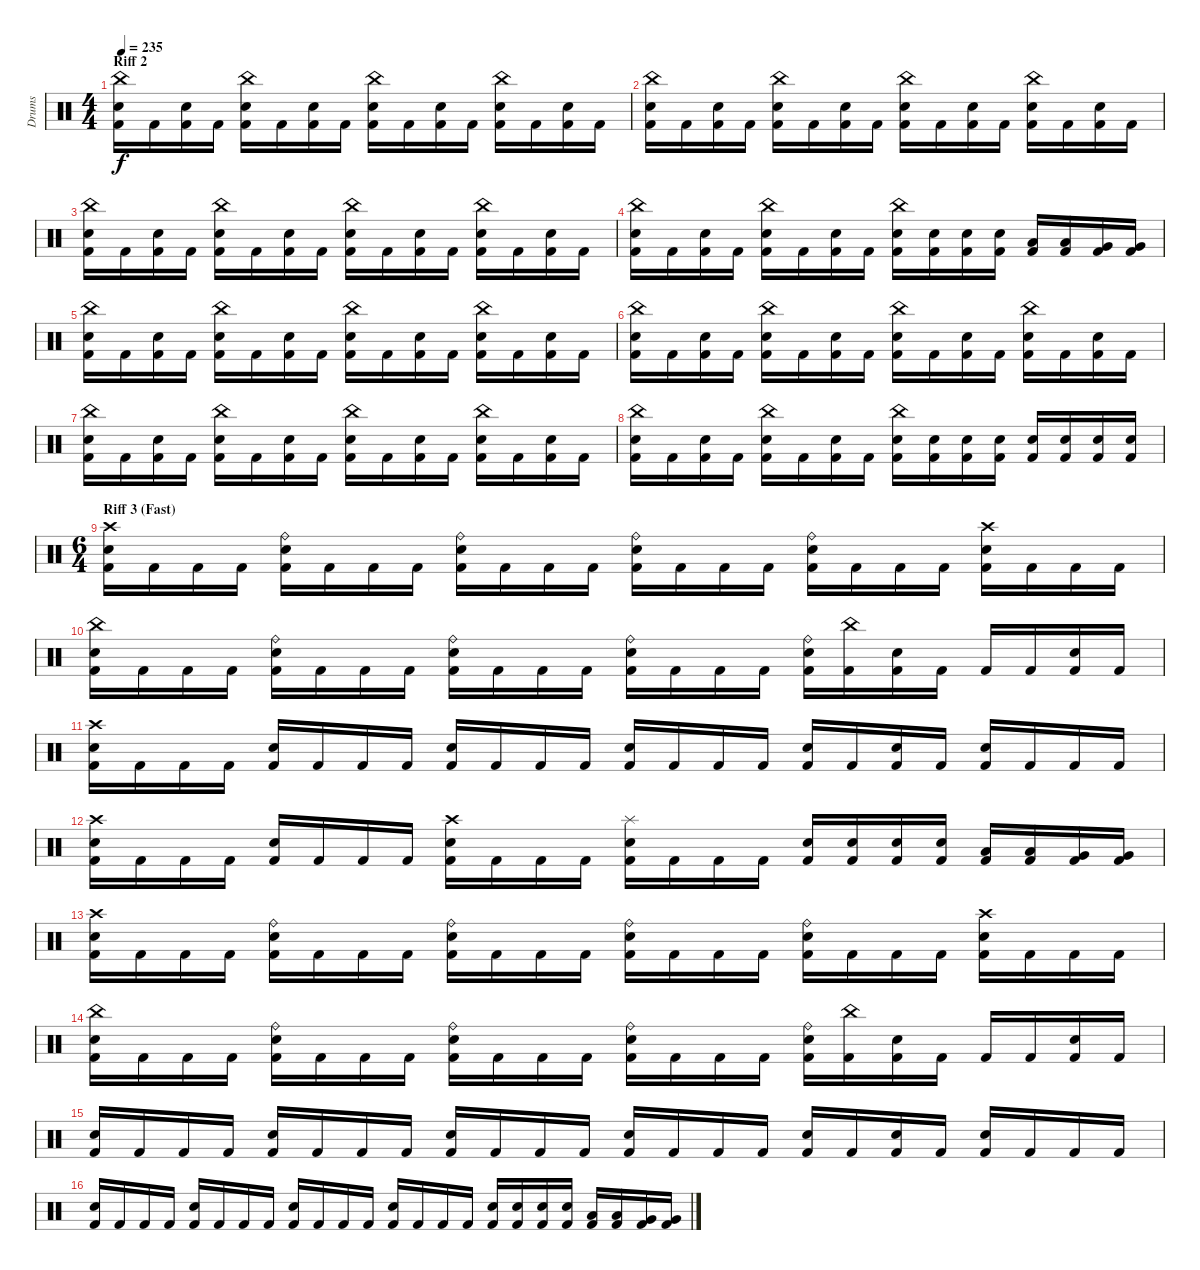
\track ("Drums" "Drums") {instrument percussion}
\staff {score}
\articulation defaults
\ts (4 4)
\section ("" "Riff 2")
\tempo 235
\clef neutral
\ks c
("Kick (hit) 2" "Snare (hit) 2" "China (hit)").16{dy f} "Kick (hit) 2".16 ("Kick (hit) 2" "Snare (hit) 2").16 "Kick (hit) 2".16 ("Kick (hit) 2" "Snare (hit) 2" "China (hit)").16 "Kick (hit) 2".16 ("Kick (hit) 2" "Snare (hit) 2").16 "Kick (hit) 2".16 ("Kick (hit) 2" "Snare (hit) 2" "China (hit)").16 "Kick (hit) 2".16 ("Kick (hit) 2" "Snare (hit) 2").16 "Kick (hit) 2".16 ("Kick (hit) 2" "Snare (hit) 2" "China (hit)").16 "Kick (hit) 2".16 ("Kick (hit) 2" "Snare (hit) 2").16 "Kick (hit) 2".16 |
("Kick (hit) 2" "Snare (hit) 2" "China (hit)").16 "Kick (hit) 2".16 ("Kick (hit) 2" "Snare (hit) 2").16 "Kick (hit) 2".16 ("Kick (hit) 2" "Snare (hit) 2" "China (hit)").16 "Kick (hit) 2".16 ("Kick (hit) 2" "Snare (hit) 2").16 "Kick (hit) 2".16 ("Kick (hit) 2" "Snare (hit) 2" "China (hit)").16 "Kick (hit) 2".16 ("Kick (hit) 2" "Snare (hit) 2").16 "Kick (hit) 2".16 ("Kick (hit) 2" "Snare (hit) 2" "China (hit)").16 "Kick (hit) 2".16 ("Kick (hit) 2" "Snare (hit) 2").16 "Kick (hit) 2".16 |
("Kick (hit) 2" "Snare (hit) 2" "China (hit)").16 "Kick (hit) 2".16 ("Kick (hit) 2" "Snare (hit) 2").16 "Kick (hit) 2".16 ("Kick (hit) 2" "Snare (hit) 2" "China (hit)").16 "Kick (hit) 2".16 ("Kick (hit) 2" "Snare (hit) 2").16 "Kick (hit) 2".16 ("Kick (hit) 2" "Snare (hit) 2" "China (hit)").16 "Kick (hit) 2".16 ("Kick (hit) 2" "Snare (hit) 2").16 "Kick (hit) 2".16 ("Kick (hit) 2" "Snare (hit) 2" "China (hit)").16 "Kick (hit) 2".16 ("Kick (hit) 2" "Snare (hit) 2").16 "Kick (hit) 2".16 |
("Kick (hit) 2" "Snare (hit) 2" "China (hit)").16 "Kick (hit) 2".16 ("Kick (hit) 2" "Snare (hit) 2").16 "Kick (hit) 2".16 ("Kick (hit) 2" "Snare (hit) 2" "China (hit)").16 "Kick (hit) 2".16 ("Kick (hit) 2" "Snare (hit) 2").16 "Kick (hit) 2".16 ("Kick (hit) 2" "Snare (hit) 2" "China (hit)").16 ("Kick (hit) 2" "Snare (hit) 2").16 ("Kick (hit) 2" "Snare (hit) 2").16 ("Kick (hit) 2" "Snare (hit) 2").16 ("Kick (hit) 2" "Low Tom (hit)").16 ("Kick (hit) 2" "Low Tom (hit)").16 ("Kick (hit) 2" "Very Low Tom (hit)").16 ("Kick (hit) 2" "Very Low Tom (hit)").16 |
("Kick (hit) 2" "Snare (hit) 2" "China (hit)").16 "Kick (hit) 2".16 ("Kick (hit) 2" "Snare (hit) 2").16 "Kick (hit) 2".16 ("Kick (hit) 2" "Snare (hit) 2" "China (hit)").16 "Kick (hit) 2".16 ("Kick (hit) 2" "Snare (hit) 2").16 "Kick (hit) 2".16 ("Kick (hit) 2" "Snare (hit) 2" "China (hit)").16 "Kick (hit) 2".16 ("Kick (hit) 2" "Snare (hit) 2").16 "Kick (hit) 2".16 ("Kick (hit) 2" "Snare (hit) 2" "China (hit)").16 "Kick (hit) 2".16 ("Kick (hit) 2" "Snare (hit) 2").16 "Kick (hit) 2".16 |
("Kick (hit) 2" "Snare (hit) 2" "China (hit)").16 "Kick (hit) 2".16 ("Kick (hit) 2" "Snare (hit) 2").16 "Kick (hit) 2".16 ("Kick (hit) 2" "Snare (hit) 2" "China (hit)").16 "Kick (hit) 2".16 ("Kick (hit) 2" "Snare (hit) 2").16 "Kick (hit) 2".16 ("Kick (hit) 2" "Snare (hit) 2" "China (hit)").16 "Kick (hit) 2".16 ("Kick (hit) 2" "Snare (hit) 2").16 "Kick (hit) 2".16 ("Kick (hit) 2" "Snare (hit) 2" "China (hit)").16 "Kick (hit) 2".16 ("Kick (hit) 2" "Snare (hit) 2").16 "Kick (hit) 2".16 |
("Kick (hit) 2" "Snare (hit) 2" "China (hit)").16 "Kick (hit) 2".16 ("Kick (hit) 2" "Snare (hit) 2").16 "Kick (hit) 2".16 ("Kick (hit) 2" "Snare (hit) 2" "China (hit)").16 "Kick (hit) 2".16 ("Kick (hit) 2" "Snare (hit) 2").16 "Kick (hit) 2".16 ("Kick (hit) 2" "Snare (hit) 2" "China (hit)").16 "Kick (hit) 2".16 ("Kick (hit) 2" "Snare (hit) 2").16 "Kick (hit) 2".16 ("Kick (hit) 2" "Snare (hit) 2" "China (hit)").16 "Kick (hit) 2".16 ("Kick (hit) 2" "Snare (hit) 2").16 "Kick (hit) 2".16 |
("Kick (hit) 2" "Snare (hit) 2" "China (hit)").16 "Kick (hit) 2".16 ("Kick (hit) 2" "Snare (hit) 2").16 "Kick (hit) 2".16 ("Kick (hit) 2" "Snare (hit) 2" "China (hit)").16 "Kick (hit) 2".16 ("Kick (hit) 2" "Snare (hit) 2").16 "Kick (hit) 2".16 ("Kick (hit) 2" "Snare (hit) 2" "China (hit)").16 ("Kick (hit) 2" "Snare (hit) 2").16 ("Kick (hit) 2" "Snare (hit) 2").16 ("Kick (hit) 2" "Snare (hit) 2").16 ("Kick (hit) 2" "Snare (hit) 2").16 ("Kick (hit) 2" "Snare (hit) 2").16 ("Kick (hit) 2" "Snare (hit) 2").16 ("Kick (hit) 2" "Snare (hit) 2").16 |
\ts (6 4)
\section ("" "Riff 3 (Fast)")
("Kick (hit) 2" "Snare (hit) 2" "Crash high (hit)").16 "Kick (hit) 2".16 "Kick (hit) 2".16 "Kick (hit) 2".16 ("Kick (hit) 2" "Snare (hit) 2" "Ride (bell)").16 "Kick (hit) 2".16 "Kick (hit) 2".16 "Kick (hit) 2".16 ("Kick (hit) 2" "Snare (hit) 2" "Ride (bell)").16 "Kick (hit) 2".16 "Kick (hit) 2".16 "Kick (hit) 2".16 ("Kick (hit) 2" "Snare (hit) 2" "Ride (bell)").16 "Kick (hit) 2".16 "Kick (hit) 2".16 "Kick (hit) 2".16 ("Kick (hit) 2" "Snare (hit) 2" "Ride (bell)").16 "Kick (hit) 2".16 "Kick (hit) 2".16 "Kick (hit) 2".16 ("Kick (hit) 2" "Snare (hit) 2" "Crash high (hit)").16 "Kick (hit) 2".16 "Kick (hit) 2".16 "Kick (hit) 2".16 |
("Kick (hit) 2" "Snare (hit) 2" "China (hit)").16 "Kick (hit) 2".16 "Kick (hit) 2".16 "Kick (hit) 2".16 ("Kick (hit) 2" "Snare (hit) 2" "Ride (bell)").16 "Kick (hit) 2".16 "Kick (hit) 2".16 "Kick (hit) 2".16 ("Kick (hit) 2" "Snare (hit) 2" "Ride (bell)").16 "Kick (hit) 2".16 "Kick (hit) 2".16 "Kick (hit) 2".16 ("Kick (hit) 2" "Snare (hit) 2" "Ride (bell)").16 "Kick (hit) 2".16 "Kick (hit) 2".16 "Kick (hit) 2".16 ("Kick (hit) 2" "Snare (hit) 2" "Ride (bell)").16 ("Kick (hit) 2" "China (hit)").16 ("Kick (hit) 2" "Snare (hit) 2").16 "Kick (hit) 2".16 "Kick (hit) 2".16 "Kick (hit) 2".16 ("Kick (hit) 2" "Snare (hit) 2").16 "Kick (hit) 2".16 |
("Kick (hit) 2" "Snare (hit) 2" "Crash high (hit)").16 "Kick (hit) 2".16 "Kick (hit) 2".16 "Kick (hit) 2".16 ("Kick (hit) 2" "Snare (hit) 2").16 "Kick (hit) 2".16 "Kick (hit) 2".16 "Kick (hit) 2".16 ("Kick (hit) 2" "Snare (hit) 2").16 "Kick (hit) 2".16 "Kick (hit) 2".16 "Kick (hit) 2".16 ("Kick (hit) 2" "Snare (hit) 2").16 "Kick (hit) 2".16 "Kick (hit) 2".16 "Kick (hit) 2".16 ("Kick (hit) 2" "Snare (hit) 2").16 "Kick (hit) 2".16 ("Kick (hit) 2" "Snare (hit) 2").16 "Kick (hit) 2".16 ("Kick (hit) 2" "Snare (hit) 2").16 "Kick (hit) 2".16 "Kick (hit) 2".16 "Kick (hit) 2".16 |
("Kick (hit) 2" "Snare (hit) 2" "Crash high (hit)").16 "Kick (hit) 2".16 "Kick (hit) 2".16 "Kick (hit) 2".16 ("Kick (hit) 2" "Snare (hit) 2").16 "Kick (hit) 2".16 "Kick (hit) 2".16 "Kick (hit) 2".16 ("Kick (hit) 2" "Snare (hit) 2" "Crash high (hit)").16 "Kick (hit) 2".16 "Kick (hit) 2".16 "Kick (hit) 2".16 ("Kick (hit) 2" "Snare (hit) 2" "Splash (hit)").16 "Kick (hit) 2".16 "Kick (hit) 2".16 "Kick (hit) 2".16 ("Kick (hit) 2" "Snare (hit) 2").16 ("Kick (hit) 2" "Snare (hit) 2").16 ("Kick (hit) 2" "Snare (hit) 2").16 ("Kick (hit) 2" "Snare (hit) 2").16 ("Kick (hit) 2" "Low Tom (hit)").16 ("Kick (hit) 2" "Low Tom (hit)").16 ("Kick (hit) 2" "Very Low Tom (hit)").16 ("Kick (hit) 2" "Very Low Tom (hit)").16 |
("Kick (hit) 2" "Snare (hit) 2" "Crash high (hit)").16 "Kick (hit) 2".16 "Kick (hit) 2".16 "Kick (hit) 2".16 ("Kick (hit) 2" "Snare (hit) 2" "Ride (bell)").16 "Kick (hit) 2".16 "Kick (hit) 2".16 "Kick (hit) 2".16 ("Kick (hit) 2" "Snare (hit) 2" "Ride (bell)").16 "Kick (hit) 2".16 "Kick (hit) 2".16 "Kick (hit) 2".16 ("Kick (hit) 2" "Snare (hit) 2" "Ride (bell)").16 "Kick (hit) 2".16 "Kick (hit) 2".16 "Kick (hit) 2".16 ("Kick (hit) 2" "Snare (hit) 2" "Ride (bell)").16 "Kick (hit) 2".16 "Kick (hit) 2".16 "Kick (hit) 2".16 ("Kick (hit) 2" "Snare (hit) 2" "Crash high (hit)").16 "Kick (hit) 2".16 "Kick (hit) 2".16 "Kick (hit) 2".16 |
("Kick (hit) 2" "Snare (hit) 2" "China (hit)").16 "Kick (hit) 2".16 "Kick (hit) 2".16 "Kick (hit) 2".16 ("Kick (hit) 2" "Snare (hit) 2" "Ride (bell)").16 "Kick (hit) 2".16 "Kick (hit) 2".16 "Kick (hit) 2".16 ("Kick (hit) 2" "Snare (hit) 2" "Ride (bell)").16 "Kick (hit) 2".16 "Kick (hit) 2".16 "Kick (hit) 2".16 ("Kick (hit) 2" "Snare (hit) 2" "Ride (bell)").16 "Kick (hit) 2".16 "Kick (hit) 2".16 "Kick (hit) 2".16 ("Kick (hit) 2" "Snare (hit) 2" "Ride (bell)").16 ("Kick (hit) 2" "China (hit)").16 ("Kick (hit) 2" "Snare (hit) 2").16 "Kick (hit) 2".16 "Kick (hit) 2".16 "Kick (hit) 2".16 ("Kick (hit) 2" "Snare (hit) 2").16 "Kick (hit) 2".16 |
("Kick (hit) 2" "Snare (hit) 2").16 "Kick (hit) 2".16 "Kick (hit) 2".16 "Kick (hit) 2".16 ("Kick (hit) 2" "Snare (hit) 2").16 "Kick (hit) 2".16 "Kick (hit) 2".16 "Kick (hit) 2".16 ("Kick (hit) 2" "Snare (hit) 2").16 "Kick (hit) 2".16 "Kick (hit) 2".16 "Kick (hit) 2".16 ("Kick (hit) 2" "Snare (hit) 2").16 "Kick (hit) 2".16 "Kick (hit) 2".16 "Kick (hit) 2".16 ("Kick (hit) 2" "Snare (hit) 2").16 "Kick (hit) 2".16 ("Kick (hit) 2" "Snare (hit) 2").16 "Kick (hit) 2".16 ("Kick (hit) 2" "Snare (hit) 2").16 "Kick (hit) 2".16 "Kick (hit) 2".16 "Kick (hit) 2".16 |
("Kick (hit) 2" "Snare (hit) 2").16 "Kick (hit) 2".16 "Kick (hit) 2".16 "Kick (hit) 2".16 ("Kick (hit) 2" "Snare (hit) 2").16 "Kick (hit) 2".16 "Kick (hit) 2".16 "Kick (hit) 2".16 ("Kick (hit) 2" "Snare (hit) 2").16 "Kick (hit) 2".16 "Kick (hit) 2".16 "Kick (hit) 2".16 ("Kick (hit) 2" "Snare (hit) 2").16 "Kick (hit) 2".16 "Kick (hit) 2".16 "Kick (hit) 2".16 ("Kick (hit) 2" "Snare (hit) 2").16 ("Kick (hit) 2" "Snare (hit) 2").16 ("Kick (hit) 2" "Snare (hit) 2").16 ("Kick (hit) 2" "Snare (hit) 2").16 ("Kick (hit) 2" "Low Tom (hit)").16 ("Kick (hit) 2" "Low Tom (hit)").16 ("Kick (hit) 2" "Very Low Tom (hit)").16 ("Kick (hit) 2" "Very Low Tom (hit)").16
